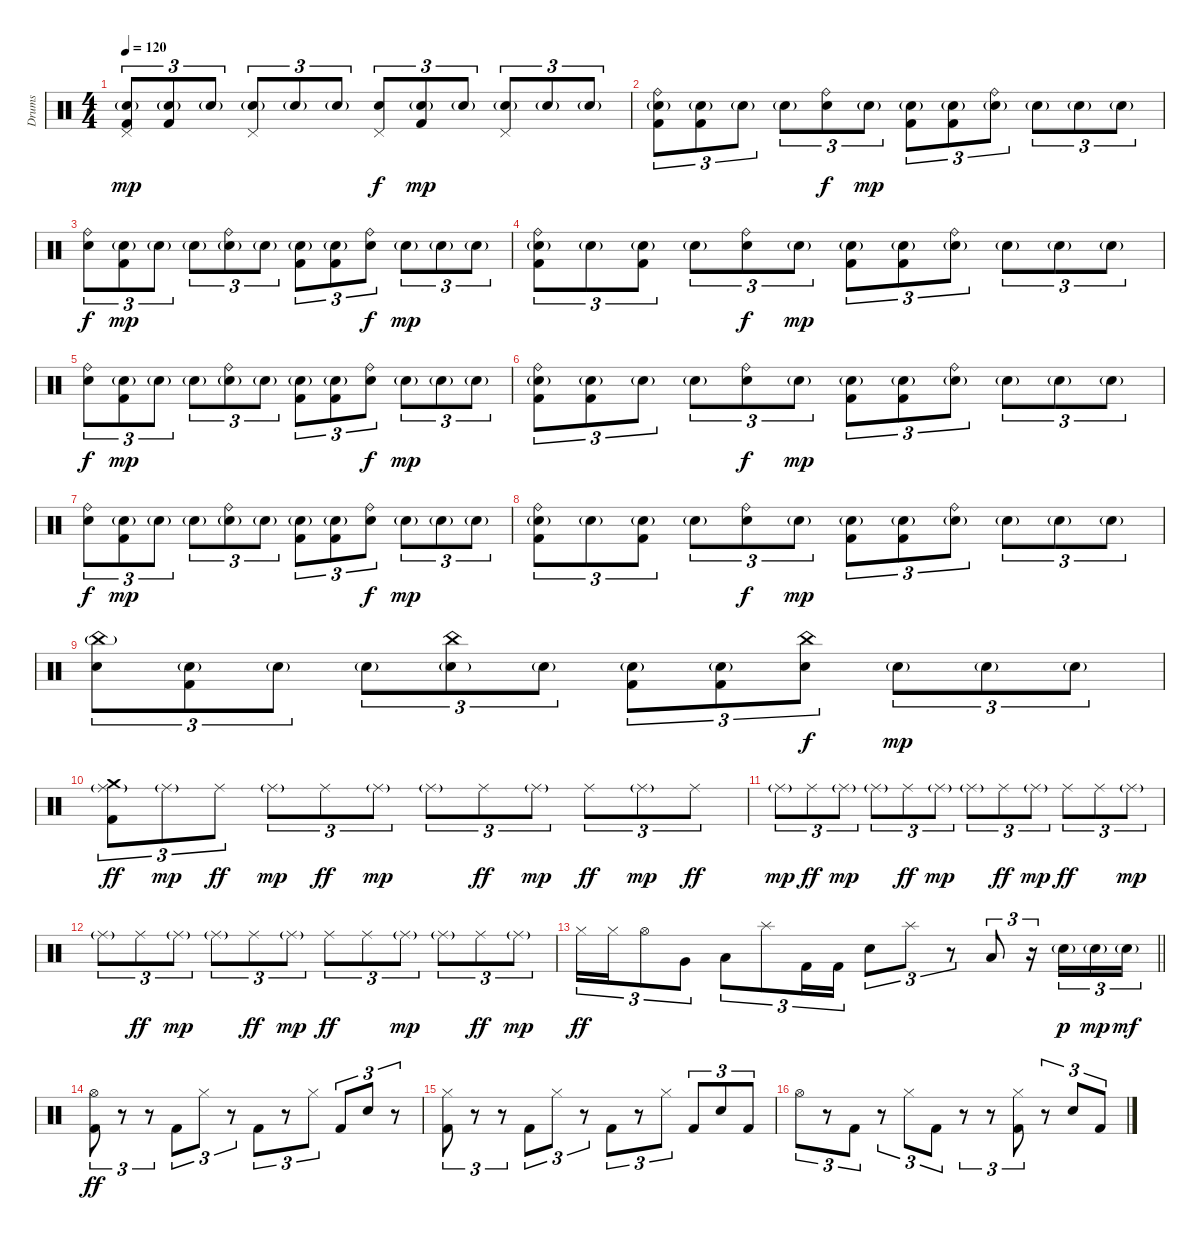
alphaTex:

\track ("Drums" "Drums") {instrument percussion}
\staff {score}
\articulation defaults
\ts (4 4)
\tempo 120
\clef neutral
\ks c
("Pedal Hi-Hat (hit)" "Electric Snare (hit)"{g} "Kick (hit) 2").8{tu (3 2) dy mp} ("Electric Snare (hit)"{g} "Kick (hit) 2").8{tu (3 2)} "Electric Snare (hit)"{g}.8{tu (3 2)} ("Pedal Hi-Hat (hit)" "Electric Snare (hit)"{g}).8{tu (3 2)} "Electric Snare (hit)"{g}.8{tu (3 2)} "Electric Snare (hit)"{g}.8{tu (3 2)} ("Pedal Hi-Hat (hit)" "Electric Snare (hit)").8{tu (3 2) dy f} ("Electric Snare (hit)"{g} "Kick (hit) 2").8{tu (3 2) dy mp} "Electric Snare (hit)"{g}.8{tu (3 2)} ("Pedal Hi-Hat (hit)" "Electric Snare (hit)"{g}).8{tu (3 2)} "Electric Snare (hit)"{g}.8{tu (3 2)} "Electric Snare (hit)"{g}.8{tu (3 2)} |
("Ride (bell)" "Electric Snare (hit)"{g} "Kick (hit) 2").8{tu (3 2)} ("Electric Snare (hit)"{g} "Kick (hit) 2").8{tu (3 2)} "Electric Snare (hit)"{g}.8{tu (3 2)} "Electric Snare (hit)"{g}.8{tu (3 2)} ("Ride (bell)" "Electric Snare (hit)").8{tu (3 2) dy f} "Electric Snare (hit)"{g}.8{tu (3 2) dy mp} ("Electric Snare (hit)"{g} "Kick (hit) 2").8{tu (3 2)} ("Electric Snare (hit)"{g} "Kick (hit) 2").8{tu (3 2)} ("Ride (bell)" "Electric Snare (hit)"{g}).8{tu (3 2)} "Electric Snare (hit)"{g}.8{tu (3 2)} "Electric Snare (hit)"{g}.8{tu (3 2)} "Electric Snare (hit)"{g}.8{tu (3 2)} |
("Ride (bell)" "Electric Snare (hit)").8{tu (3 2) dy f} ("Electric Snare (hit)"{g} "Kick (hit) 2").8{tu (3 2) dy mp} "Electric Snare (hit)"{g}.8{tu (3 2)} "Electric Snare (hit)"{g}.8{tu (3 2)} ("Ride (bell)" "Electric Snare (hit)"{g}).8{tu (3 2)} "Electric Snare (hit)"{g}.8{tu (3 2)} ("Electric Snare (hit)"{g} "Kick (hit) 2").8{tu (3 2)} ("Electric Snare (hit)"{g} "Kick (hit) 2").8{tu (3 2)} ("Ride (bell)" "Electric Snare (hit)").8{tu (3 2) dy f} "Electric Snare (hit)"{g}.8{tu (3 2) dy mp} "Electric Snare (hit)"{g}.8{tu (3 2)} "Electric Snare (hit)"{g}.8{tu (3 2)} |
("Ride (bell)" "Electric Snare (hit)"{g} "Kick (hit) 2").8{tu (3 2)} "Electric Snare (hit)"{g}.8{tu (3 2)} ("Electric Snare (hit)"{g} "Kick (hit) 2").8{tu (3 2)} "Electric Snare (hit)"{g}.8{tu (3 2)} ("Ride (bell)" "Electric Snare (hit)").8{tu (3 2) dy f} "Electric Snare (hit)"{g}.8{tu (3 2) dy mp} ("Electric Snare (hit)"{g} "Kick (hit) 2").8{tu (3 2)} ("Electric Snare (hit)"{g} "Kick (hit) 2").8{tu (3 2)} ("Ride (bell)" "Electric Snare (hit)"{g}).8{tu (3 2)} "Electric Snare (hit)"{g}.8{tu (3 2)} "Electric Snare (hit)"{g}.8{tu (3 2)} "Electric Snare (hit)"{g}.8{tu (3 2)} |
("Ride (bell)" "Electric Snare (hit)").8{tu (3 2) dy f} ("Electric Snare (hit)"{g} "Kick (hit) 2").8{tu (3 2) dy mp} "Electric Snare (hit)"{g}.8{tu (3 2)} "Electric Snare (hit)"{g}.8{tu (3 2)} ("Ride (bell)" "Electric Snare (hit)"{g}).8{tu (3 2)} "Electric Snare (hit)"{g}.8{tu (3 2)} ("Electric Snare (hit)"{g} "Kick (hit) 2").8{tu (3 2)} ("Electric Snare (hit)"{g} "Kick (hit) 2").8{tu (3 2)} ("Ride (bell)" "Electric Snare (hit)").8{tu (3 2) dy f} "Electric Snare (hit)"{g}.8{tu (3 2) dy mp} "Electric Snare (hit)"{g}.8{tu (3 2)} "Electric Snare (hit)"{g}.8{tu (3 2)} |
("Ride (bell)" "Electric Snare (hit)"{g} "Kick (hit) 2").8{tu (3 2)} ("Electric Snare (hit)"{g} "Kick (hit) 2").8{tu (3 2)} "Electric Snare (hit)"{g}.8{tu (3 2)} "Electric Snare (hit)"{g}.8{tu (3 2)} ("Ride (bell)" "Electric Snare (hit)").8{tu (3 2) dy f} "Electric Snare (hit)"{g}.8{tu (3 2) dy mp} ("Electric Snare (hit)"{g} "Kick (hit) 2").8{tu (3 2)} ("Electric Snare (hit)"{g} "Kick (hit) 2").8{tu (3 2)} ("Ride (bell)" "Electric Snare (hit)"{g}).8{tu (3 2)} "Electric Snare (hit)"{g}.8{tu (3 2)} "Electric Snare (hit)"{g}.8{tu (3 2)} "Electric Snare (hit)"{g}.8{tu (3 2)} |
("Ride (bell)" "Electric Snare (hit)").8{tu (3 2) dy f} ("Electric Snare (hit)"{g} "Kick (hit) 2").8{tu (3 2) dy mp} "Electric Snare (hit)"{g}.8{tu (3 2)} "Electric Snare (hit)"{g}.8{tu (3 2)} ("Ride (bell)" "Electric Snare (hit)"{g}).8{tu (3 2)} "Electric Snare (hit)"{g}.8{tu (3 2)} ("Electric Snare (hit)"{g} "Kick (hit) 2").8{tu (3 2)} ("Electric Snare (hit)"{g} "Kick (hit) 2").8{tu (3 2)} ("Ride (bell)" "Electric Snare (hit)").8{tu (3 2) dy f} "Electric Snare (hit)"{g}.8{tu (3 2) dy mp} "Electric Snare (hit)"{g}.8{tu (3 2)} "Electric Snare (hit)"{g}.8{tu (3 2)} |
("Ride (bell)" "Electric Snare (hit)"{g} "Kick (hit) 2").8{tu (3 2)} "Electric Snare (hit)"{g}.8{tu (3 2)} ("Electric Snare (hit)"{g} "Kick (hit) 2").8{tu (3 2)} "Electric Snare (hit)"{g}.8{tu (3 2)} ("Ride (bell)" "Electric Snare (hit)").8{tu (3 2) dy f} "Electric Snare (hit)"{g}.8{tu (3 2) dy mp} ("Electric Snare (hit)"{g} "Kick (hit) 2").8{tu (3 2)} ("Electric Snare (hit)"{g} "Kick (hit) 2").8{tu (3 2)} ("Ride (bell)" "Electric Snare (hit)"{g}).8{tu (3 2)} "Electric Snare (hit)"{g}.8{tu (3 2)} "Electric Snare (hit)"{g}.8{tu (3 2)} "Electric Snare (hit)"{g}.8{tu (3 2)} |
("China (hit)"{g} "Electric Snare (hit)").8{tu (3 2)} ("Electric Snare (hit)"{g} "Kick (hit) 2").8{tu (3 2)} "Electric Snare (hit)"{g}.8{tu (3 2)} "Electric Snare (hit)"{g}.8{tu (3 2)} ("China (hit)" "Electric Snare (hit)"{g}).8{tu (3 2)} "Electric Snare (hit)"{g}.8{tu (3 2)} ("Electric Snare (hit)"{g} "Kick (hit) 2").8{tu (3 2)} ("Electric Snare (hit)"{g} "Kick (hit) 2").8{tu (3 2)} ("China (hit)" "Electric Snare (hit)").8{tu (3 2) dy f} "Electric Snare (hit)"{g}.8{tu (3 2) dy mp} "Electric Snare (hit)"{g}.8{tu (3 2)} "Electric Snare (hit)"{g}.8{tu (3 2)} |
("Crash medium (hit)" "Ride (middle)"{g} "Kick (hit) 2").8{tu (3 2) dy ff} "Ride (middle)"{g}.8{tu (3 2) dy mp} "Ride (middle)".8{tu (3 2) dy ff} "Ride (middle)"{g}.8{tu (3 2) dy mp} "Ride (middle)".8{tu (3 2) dy ff} "Ride (middle)"{g}.8{tu (3 2) dy mp} "Ride (middle)"{g}.8{tu (3 2)} "Ride (middle)".8{tu (3 2) dy ff} "Ride (middle)"{g}.8{tu (3 2) dy mp} "Ride (middle)".8{tu (3 2) dy ff} "Ride (middle)"{g}.8{tu (3 2) dy mp} "Ride (middle)".8{tu (3 2) dy ff} |
"Ride (middle)"{g}.8{tu (3 2) dy mp} "Ride (middle)".8{tu (3 2) dy ff} "Ride (middle)"{g}.8{tu (3 2) dy mp} "Ride (middle)"{g}.8{tu (3 2)} "Ride (middle)".8{tu (3 2) dy ff} "Ride (middle)"{g}.8{tu (3 2) dy mp} "Ride (middle)"{g}.8{tu (3 2)} "Ride (middle)".8{tu (3 2) dy ff} "Ride (middle)"{g}.8{tu (3 2) dy mp} "Ride (middle)".8{tu (3 2) dy ff} "Ride (middle)".8{tu (3 2)} "Ride (middle)"{g}.8{tu (3 2) dy mp} |
"Ride (middle)"{g}.8{tu (3 2)} "Ride (middle)".8{tu (3 2) dy ff} "Ride (middle)"{g}.8{tu (3 2) dy mp} "Ride (middle)"{g}.8{tu (3 2)} "Ride (middle)".8{tu (3 2) dy ff} "Ride (middle)"{g}.8{tu (3 2) dy mp} "Ride (middle)".8{tu (3 2) dy ff} "Ride (middle)".8{tu (3 2)} "Ride (middle)"{g}.8{tu (3 2) dy mp} "Ride (middle)"{g}.8{tu (3 2)} "Ride (middle)".8{tu (3 2) dy ff} "Ride (middle)"{g}.8{tu (3 2) dy mp} |
\barLineRight lightlight "Hi-Hat (closed)".16{tu (3 2) dy ff} "Hi-Hat (closed)".16{tu (3 2)} "Hi-Hat (open)".8{tu (3 2)} "Very Low Tom (hit)".8{tu (3 2)} "Low Tom (hit)".8{tu (3 2)} "Splash (hit)".8{tu (3 2)} "Kick (hit) 2".16{tu (3 2)} "Kick (hit) 2".16{tu (3 2)} "Electric Snare (hit)".8{tu (3 2)} "Splash (hit)".8{tu (3 2)}
r.8{tu (3 2)} "Low Floor Tom (hit)".8{tu (3 2)} r.16{tu (3 2)} "Electric Snare (hit)"{g}.16{tu (3 2) dy p} "Electric Snare (hit)"{g}.16{tu (3 2) dy mp} "Electric Snare (hit)"{g}.16{tu (3 2) dy mf} |
\section ("" "")
("Hi-Hat (open)" "Kick (hit) 2").8{tu (3 2) dy ff} r.8{tu (3 2)} r.8{tu (3 2)} "Kick (hit) 2".8{tu (3 2)} "Hi-Hat (closed)".8{tu (3 2)} r.8{tu (3 2)} "Kick (hit) 2".8{tu (3 2)} r.8{tu (3 2)} "Hi-Hat (closed)".8{tu (3 2)} "Kick (hit) 2".8{tu (3 2)} "Electric Snare (hit)".8{tu (3 2)} r.8{tu (3 2)} |
("Hi-Hat (closed)" "Kick (hit) 2").8{tu (3 2)} r.8{tu (3 2)} r.8{tu (3 2)} "Kick (hit) 2".8{tu (3 2)} "Hi-Hat (closed)".8{tu (3 2)} r.8{tu (3 2)} "Kick (hit) 2".8{tu (3 2)} r.8{tu (3 2)} "Hi-Hat (closed)".8{tu (3 2)} "Kick (hit) 2".8{tu (3 2)} "Electric Snare (hit)".8{tu (3 2)} "Kick (hit) 2".8{tu (3 2)} |
"Hi-Hat (open)".8{tu (3 2)} r.8{tu (3 2)} "Kick (hit) 2".8{tu (3 2)} r.8{tu (3 2)} "Hi-Hat (closed)".8{tu (3 2)} "Kick (hit) 2".8{tu (3 2)} r.8{tu (3 2)} r.8{tu (3 2)} ("Hi-Hat (closed)" "Kick (hit) 2").8{tu (3 2)} r.8{tu (3 2)} "Electric Snare (hit)".8{tu (3 2)} "Kick (hit) 2".8{tu (3 2)}
